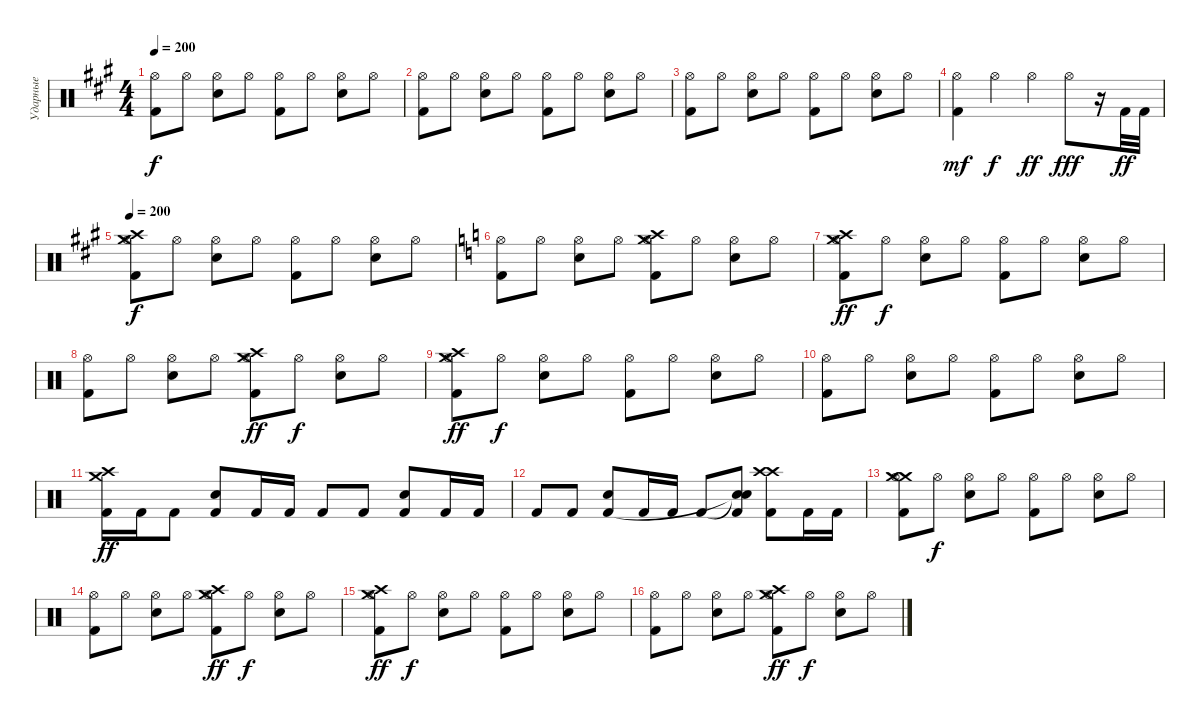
\track ("Ударные" "Ударные") {instrument percussion}
\staff {score}
\articulation defaults
\ts (4 4)
\tempo 200
\clef neutral
\ks f#minor
("Hi-Hat (open)" "Kick (hit) 2").8{dy f} "Hi-Hat (open)".8 ("Hi-Hat (open)" "Electric Snare (hit)").8 "Hi-Hat (open)".8 ("Hi-Hat (open)" "Kick (hit) 2").8 "Hi-Hat (open)".8 ("Hi-Hat (open)" "Electric Snare (hit)").8 "Hi-Hat (open)".8 |
("Hi-Hat (open)" "Kick (hit) 2").8 "Hi-Hat (open)".8 ("Hi-Hat (open)" "Electric Snare (hit)").8 "Hi-Hat (open)".8 ("Hi-Hat (open)" "Kick (hit) 2").8 "Hi-Hat (open)".8 ("Hi-Hat (open)" "Electric Snare (hit)").8 "Hi-Hat (open)".8 |
("Hi-Hat (open)" "Kick (hit) 2").8 "Hi-Hat (open)".8 ("Hi-Hat (open)" "Electric Snare (hit)").8 "Hi-Hat (open)".8 ("Hi-Hat (open)" "Kick (hit) 2").8 "Hi-Hat (open)".8 ("Hi-Hat (open)" "Electric Snare (hit)").8 "Hi-Hat (open)".8 |
("Hi-Hat (open)" "Kick (hit) 2").4{dy mf} "Hi-Hat (open)".4{dy f} "Hi-Hat (open)".4{dy ff} "Hi-Hat (open)".8{dy fff} r.16 "Kick (hit) 2".32{dy ff} "Kick (hit) 2".32 |
\tempo 200
("Crash high (hit)" "Crash medium (hit)" "Hi-Hat (open)" "Kick (hit) 2").8{dy f} "Hi-Hat (open)".8 ("Hi-Hat (open)" "Electric Snare (hit)").8 "Hi-Hat (open)".8 ("Hi-Hat (open)" "Kick (hit) 2").8 "Hi-Hat (open)".8 ("Hi-Hat (open)" "Electric Snare (hit)").8 "Hi-Hat (open)".8 |
\ks c
("Hi-Hat (open)" "Kick (hit) 2").8 "Hi-Hat (open)".8 ("Hi-Hat (open)" "Electric Snare (hit)").8 "Hi-Hat (open)".8 ("Crash high (hit)" "Crash medium (hit)" "Hi-Hat (open)" "Kick (hit) 2").8 "Hi-Hat (open)".8 ("Hi-Hat (open)" "Electric Snare (hit)").8 "Hi-Hat (open)".8 |
("Crash high (hit)" "Crash medium (hit)" "Hi-Hat (open)" "Kick (hit) 2").8{dy ff} "Hi-Hat (open)".8{dy f} ("Hi-Hat (open)" "Electric Snare (hit)").8 "Hi-Hat (open)".8 ("Hi-Hat (open)" "Kick (hit) 2").8 "Hi-Hat (open)".8 ("Hi-Hat (open)" "Electric Snare (hit)").8 "Hi-Hat (open)".8 |
("Hi-Hat (open)" "Kick (hit) 2").8 "Hi-Hat (open)".8 ("Hi-Hat (open)" "Electric Snare (hit)").8 "Hi-Hat (open)".8 ("Crash high (hit)" "Crash medium (hit)" "Hi-Hat (open)" "Kick (hit) 2").8{dy ff} "Hi-Hat (open)".8{dy f} ("Hi-Hat (open)" "Electric Snare (hit)").8 "Hi-Hat (open)".8 |
("Crash high (hit)" "Crash medium (hit)" "Hi-Hat (open)" "Kick (hit) 2").8{dy ff} "Hi-Hat (open)".8{dy f} ("Hi-Hat (open)" "Electric Snare (hit)").8 "Hi-Hat (open)".8 ("Hi-Hat (open)" "Kick (hit) 2").8 "Hi-Hat (open)".8 ("Hi-Hat (open)" "Electric Snare (hit)").8 "Hi-Hat (open)".8 |
("Hi-Hat (open)" "Kick (hit) 2").8 "Hi-Hat (open)".8 ("Hi-Hat (open)" "Electric Snare (hit)").8 "Hi-Hat (open)".8 ("Hi-Hat (open)" "Kick (hit) 2").8 "Hi-Hat (open)".8 ("Hi-Hat (open)" "Electric Snare (hit)").8 "Hi-Hat (open)".8 |
("Crash high (hit)" "Crash medium (hit)" "Kick (hit) 2").16{dy ff} "Kick (hit) 2".16 "Kick (hit) 2".8 ("Electric Snare (hit)" "Kick (hit) 2").8 "Kick (hit) 2".16 "Kick (hit) 2".16 "Kick (hit) 2".8 "Kick (hit) 2".8 ("Electric Snare (hit)" "Kick (hit) 2").8 "Kick (hit) 2".16 "Kick (hit) 2".16 |
"Kick (hit) 2".8 "Kick (hit) 2".8 ("Electric Snare (hit)" "Kick (hit) 2").8 "Kick (hit) 2".16 "Kick (hit) 2".16 "Kick (hit) 2".8 ("Snare (hit)"{t} "Snare (hit)"{t} "Kick (hit) 2").8 ("Crash high (hit)" "Crash high (hit)" "Kick (hit) 2").8 "Kick (hit) 2".16 "Kick (hit) 2".16 |
("Crash medium (hit)" "Crash medium (hit)" "Hi-Hat (open)" "Kick (hit) 2").8 "Hi-Hat (open)".8{dy f} ("Hi-Hat (open)" "Electric Snare (hit)").8 "Hi-Hat (open)".8 ("Hi-Hat (open)" "Kick (hit) 2").8 "Hi-Hat (open)".8 ("Hi-Hat (open)" "Electric Snare (hit)").8 "Hi-Hat (open)".8 |
("Hi-Hat (open)" "Kick (hit) 2").8 "Hi-Hat (open)".8 ("Hi-Hat (open)" "Electric Snare (hit)").8 "Hi-Hat (open)".8 ("Crash medium (hit)" "Crash high (hit)" "Hi-Hat (open)" "Kick (hit) 2").8{dy ff} "Hi-Hat (open)".8{dy f} ("Hi-Hat (open)" "Electric Snare (hit)").8 "Hi-Hat (open)".8 |
("Crash medium (hit)" "Crash high (hit)" "Hi-Hat (open)" "Kick (hit) 2").8{dy ff} "Hi-Hat (open)".8{dy f} ("Hi-Hat (open)" "Electric Snare (hit)").8 "Hi-Hat (open)".8 ("Hi-Hat (open)" "Kick (hit) 2").8 "Hi-Hat (open)".8 ("Hi-Hat (open)" "Electric Snare (hit)").8 "Hi-Hat (open)".8 |
("Hi-Hat (open)" "Kick (hit) 2").8 "Hi-Hat (open)".8 ("Hi-Hat (open)" "Electric Snare (hit)").8 "Hi-Hat (open)".8 ("Crash medium (hit)" "Crash high (hit)" "Hi-Hat (open)" "Kick (hit) 2").8{dy ff} "Hi-Hat (open)".8{dy f} ("Hi-Hat (open)" "Electric Snare (hit)").8 "Hi-Hat (open)".8
